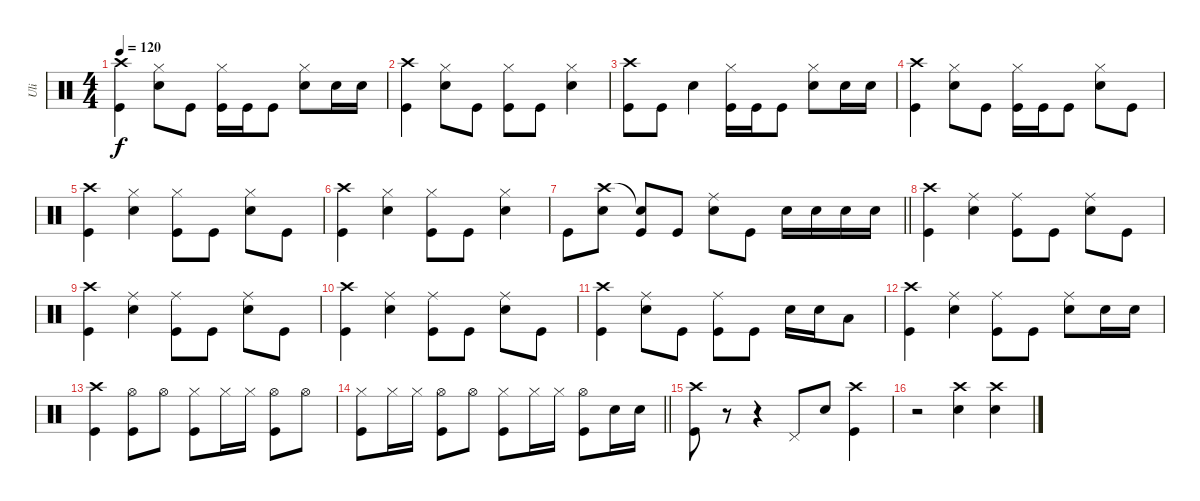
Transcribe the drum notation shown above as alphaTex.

\track ("Uli" "Uli") {instrument percussion}
\staff {score}
\articulation defaults
\ts (4 4)
\tempo 120
\clef neutral
\ks aminor
("Crash high (hit)" "Kick (hit)").4{dy f} ("Hi-Hat (closed)" "Snare (hit) 2").8 "Kick (hit)".8 ("Hi-Hat (closed)" "Kick (hit)").16 "Kick (hit)".16 "Kick (hit)".8 ("Hi-Hat (closed)" "Snare (hit) 2").8 "Snare (hit) 2".16 "Snare (hit) 2".16 |
("Crash high (hit)" "Kick (hit)").4 ("Hi-Hat (closed)" "Snare (hit) 2").8 "Kick (hit)".8 ("Hi-Hat (closed)" "Kick (hit)").8 "Kick (hit)".8 ("Hi-Hat (closed)" "Snare (hit) 2").4 |
("Crash high (hit)" "Kick (hit)").8 "Kick (hit)".8 "Snare (hit) 2".4 ("Hi-Hat (closed)" "Kick (hit)").16 "Kick (hit)".16 "Kick (hit)".8 ("Hi-Hat (closed)" "Snare (hit) 2").8 "Snare (hit) 2".16 "Snare (hit) 2".16 |
("Crash high (hit)" "Kick (hit)").4 ("Hi-Hat (closed)" "Snare (hit) 2").8 "Kick (hit)".8 ("Hi-Hat (closed)" "Kick (hit)").16 "Kick (hit)".16 "Kick (hit)".8 ("Hi-Hat (closed)" "Snare (hit) 2").8 "Kick (hit)".8 |
("Crash high (hit)" "Kick (hit)").4 ("Hi-Hat (closed)" "Snare (hit) 2").4 ("Hi-Hat (closed)" "Kick (hit)").8 "Kick (hit)".8 ("Hi-Hat (closed)" "Snare (hit) 2").8 "Kick (hit)".8 |
("Crash high (hit)" "Kick (hit)").4 ("Hi-Hat (closed)" "Snare (hit) 2").4 ("Hi-Hat (closed)" "Kick (hit)").8 "Kick (hit)".8 ("Hi-Hat (closed)" "Snare (hit) 2").4 |
\barLineRight lightlight "Kick (hit)".8
("Crash high (hit)" "Snare (hit) 2").8 ("Snare (hit)"{t} "Kick (hit)").8 "Kick (hit)".8 ("Ride (middle)" "Snare (hit) 2").8 "Kick (hit)".8 "Snare (hit) 2".16 "Snare (hit) 2".16 "Snare (hit) 2".16 "Snare (hit) 2".16 |
("Crash high (hit)" "Kick (hit)").4 ("Ride (middle)" "Snare (hit) 2").4 ("Ride (middle)" "Kick (hit)").8 "Kick (hit)".8 ("Ride (middle)" "Snare (hit) 2").8 "Kick (hit)".8 |
("Crash high (hit)" "Kick (hit)").4 ("Ride (middle)" "Snare (hit) 2").4 ("Ride (middle)" "Kick (hit)").8 "Kick (hit)".8 ("Ride (middle)" "Snare (hit) 2").8 "Kick (hit)".8 |
("Crash high (hit)" "Kick (hit)").4 ("Ride (middle)" "Snare (hit) 2").4 ("Ride (middle)" "Kick (hit)").8 "Kick (hit)".8 ("Ride (middle)" "Snare (hit) 2").8 "Kick (hit)".8 |
("Crash high (hit)" "Kick (hit)").4 ("Ride (middle)" "Snare (hit) 2").8 "Kick (hit)".8 ("Ride (middle)" "Kick (hit)").8 "Kick (hit)".8 "Snare (hit) 2".16 "Snare (hit) 2".16 "Low Tom (hit)".8 |
("Crash high (hit)" "Kick (hit)").4 ("Ride (middle)" "Snare (hit) 2").4 ("Ride (middle)" "Kick (hit)").8 "Kick (hit)".8 ("Ride (middle)" "Snare (hit) 2").8 "Snare (hit) 2".16 "Snare (hit) 2".16 |
("Crash high (hit)" "Kick (hit)").4 ("Hi-Hat (open)" "Kick (hit)").8 "Hi-Hat (open)".8 ("Hi-Hat (closed)" "Kick (hit)").8 "Hi-Hat (closed)".16 "Hi-Hat (closed)".16 ("Hi-Hat (open)" "Kick (hit)").8 "Hi-Hat (open)".8 |
\barLineRight lightlight
("Hi-Hat (closed)" "Kick (hit)").8 "Hi-Hat (closed)".16 "Hi-Hat (closed)".16 ("Hi-Hat (open)" "Kick (hit)").8 "Hi-Hat (open)".8 ("Hi-Hat (closed)" "Kick (hit)").8 "Hi-Hat (closed)".16 "Hi-Hat (closed)".16 ("Hi-Hat (open)" "Kick (hit)").8 "Snare (hit) 2".16 "Snare (hit) 2".16 |
("Crash high (hit)" "Kick (hit)").8 r.8 r.4 "Pedal Hi-Hat (hit)".8 "Snare (hit) 2".8 ("Crash high (hit)" "Kick (hit)").4 |
r.2 ("Crash high (hit)" "Snare (hit) 2").4 ("Crash high (hit)" "Snare (hit) 2").4
